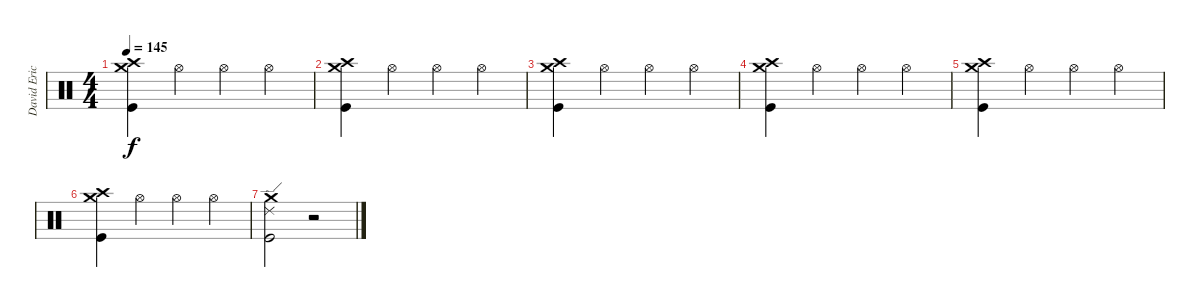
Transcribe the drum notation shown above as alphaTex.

\track ("David Eric Grohl" "David Eric") {instrument percussion}
\staff {score}
\articulation defaults
\ts (4 4)
\tempo 145
\clef neutral
\ks c
("Crash medium (hit)" "Crash high (hit)" "Kick (hit)").4{dy f} "Hi-Hat (open)".4 "Hi-Hat (open)".4 "Hi-Hat (open)".4 |
("Crash medium (hit)" "Crash high (hit)" "Kick (hit)").4 "Hi-Hat (open)".4 "Hi-Hat (open)".4 "Hi-Hat (open)".4 |
("Crash medium (hit)" "Crash high (hit)" "Kick (hit)").4 "Hi-Hat (open)".4 "Hi-Hat (open)".4 "Hi-Hat (open)".4 |
("Crash medium (hit)" "Crash high (hit)" "Kick (hit)").4 "Hi-Hat (open)".4 "Hi-Hat (open)".4 "Hi-Hat (open)".4 |
("Crash medium (hit)" "Crash high (hit)" "Kick (hit)").4 "Hi-Hat (open)".4 "Hi-Hat (open)".4 "Hi-Hat (open)".4 |
("Crash medium (hit)" "Crash high (hit)" "Kick (hit)").4 "Hi-Hat (open)".4 "Hi-Hat (open)".4 "Hi-Hat (open)".4 |
("Ride (edge) 2" "Crash medium (hit)" "Kick (hit)").2 r.2
